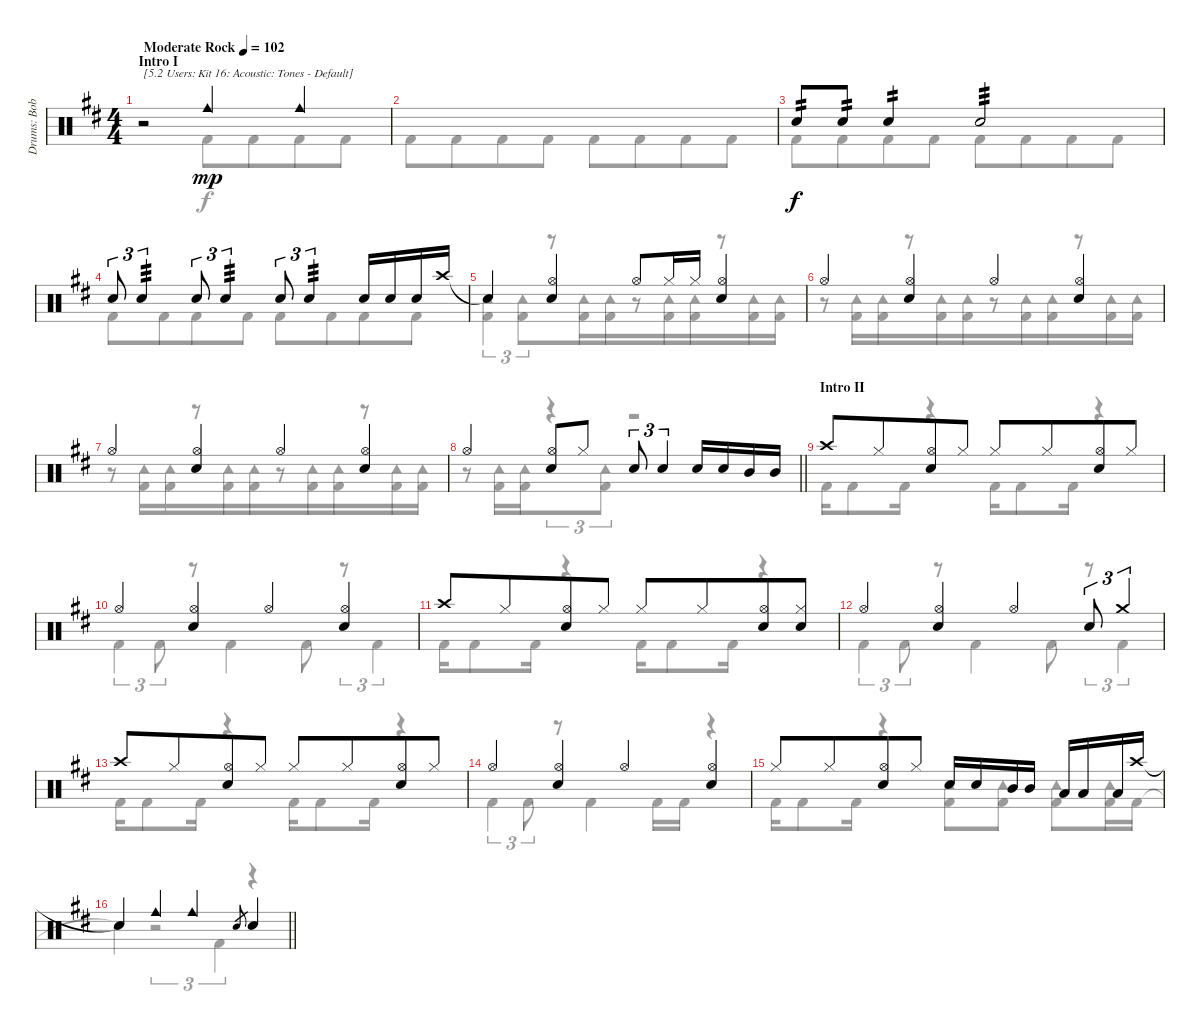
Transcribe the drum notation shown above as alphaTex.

\track ("Drums: Bobby" "Drums: Bob") {instrument percussion}
\staff {score}
\articulation defaults
\voice
\ts (4 4)
\section ("" "Intro I")
\tempo (102 "Moderate Rock")
\clef neutral
\ks d
r.2{txt "[5.2 Users: Kit 16: Acoustic: Tones - Default]" dy mp} "Cowbell medium (hit)".4 "Cowbell medium (hit)".4 |
|
"Snare (hit) 2".8{tp 2 dy f} "Snare (hit) 2".8{tp 2} "Snare (hit) 2".4{tp 2} "Snare (hit) 2".2{tp 3} |
"Snare (hit) 2".8{tu (3 2)} "Snare (hit) 2".4{tu (3 2) tp 3} "Snare (hit) 2".8{tu (3 2)} "Snare (hit) 2".4{tu (3 2) tp 3} "Snare (hit) 2".8{tu (3 2)} "Snare (hit) 2".4{tu (3 2) tp 3} "Snare (hit) 2".16 "Snare (hit) 2".16 "Snare (hit) 2".16 "Crash high (hit)".16 |
"Snare (hit)"{t}.4 ("Hi-Hat (open)" "Snare (hit) 2").4 "Hi-Hat (open)".8 "Hi-Hat (closed)".16 "Hi-Hat (closed)".16 ("Hi-Hat (open)" "Snare (hit) 2").4 |
"Hi-Hat (open)".4 ("Hi-Hat (open)" "Snare (hit) 2").4 "Hi-Hat (open)".4 ("Hi-Hat (open)" "Snare (hit) 2").4 |
"Hi-Hat (open)".4 ("Hi-Hat (open)" "Snare (hit) 2").4 "Hi-Hat (open)".4 ("Hi-Hat (open)" "Snare (hit) 2").4 |
\barLineRight lightlight "Hi-Hat (open)".4
("Hi-Hat (open)" "Snare (hit) 2").8 "Hi-Hat (closed)".8 "Snare (hit) 2".8{tu (3 2)} "Snare (hit) 2".4{tu (3 2)} "Snare (hit) 2".16 "Snare (hit) 2".16 "Mid Tom (hit)".16 "Mid Tom (hit)".16 |
\section ("" "Intro II")
"Crash high (hit)".8 "Hi-Hat (closed)".8{beam merge} ("Hi-Hat (open)" "Snare (hit) 2").8 "Hi-Hat (closed)".8 "Hi-Hat (closed)".8 "Hi-Hat (closed)".8{beam merge} ("Hi-Hat (open)" "Snare (hit) 2").8 "Hi-Hat (closed)".8 |
"Hi-Hat (open)".4 ("Hi-Hat (open)" "Snare (hit) 2").4 "Hi-Hat (open)".4 ("Hi-Hat (open)" "Snare (hit) 2").4 |
"Crash high (hit)".8 "Hi-Hat (closed)".8{beam merge} ("Hi-Hat (open)" "Snare (hit) 2").8 "Hi-Hat (closed)".8 "Hi-Hat (closed)".8 "Hi-Hat (closed)".8{beam merge} ("Hi-Hat (open)" "Snare (hit) 2").8 ("Hi-Hat (closed)" "Snare (hit)").8 |
"Hi-Hat (open)".4 ("Hi-Hat (open)" "Snare (hit) 2").4 "Hi-Hat (open)".4 "Snare (hit) 2".8{tu (3 2)} "Crash medium (hit)".4{tu (3 2)} |
"Crash high (hit)".8 "Hi-Hat (closed)".8{beam merge} ("Hi-Hat (open)" "Snare (hit) 2").8 "Hi-Hat (closed)".8 "Hi-Hat (closed)".8 "Hi-Hat (closed)".8{beam merge} ("Hi-Hat (open)" "Snare (hit) 2").8 "Hi-Hat (closed)".8 |
"Hi-Hat (open)".4 ("Hi-Hat (open)" "Snare (hit) 2").4 "Hi-Hat (open)".4 ("Hi-Hat (open)" "Snare (hit) 2").4 |
"Hi-Hat (closed)".8 "Hi-Hat (closed)".8{beam merge} ("Hi-Hat (open)" "Snare (hit) 2").8 "Hi-Hat (closed)".8 "Snare (hit) 2".16 "Snare (hit) 2".16 "Mid Tom (hit)".16 "Mid Tom (hit)".16 "Low Tom (hit)".16 "Low Tom (hit)".16 "Low Tom (hit)".16 "Crash high (hit)".16 |
\barLineRight lightlight "Snare (hit)"{t}.4 "Cowbell medium (hit)".4 "Cowbell medium (hit)".4 "Electric Snare (hit)".8{gr} "Snare (hit) 2".4
\voice
\clef neutral
\ottava regular
\simile none
\ks d
r.2{dy f} "Kick (hit) 2".8 "Kick (hit) 2".8{beam merge} "Kick (hit) 2".8 "Kick (hit) 2".8 |
"Kick (hit) 2".8 "Kick (hit) 2".8{beam merge} "Kick (hit) 2".8 "Kick (hit) 2".8 "Kick (hit) 2".8 "Kick (hit) 2".8{beam merge} "Kick (hit) 2".8 "Kick (hit) 2".8 |
"Kick (hit) 2".8 "Kick (hit) 2".8{beam merge} "Kick (hit) 2".8 "Kick (hit) 2".8 "Kick (hit) 2".8 "Kick (hit) 2".8{beam merge} "Kick (hit) 2".8 "Kick (hit) 2".8 |
"Kick (hit) 2".8 "Kick (hit) 2".8{beam merge} "Kick (hit) 2".8 "Kick (hit) 2".8 "Kick (hit) 2".8 "Kick (hit) 2".8{beam merge} "Kick (hit) 2".8 "Kick (hit) 2".8 |
("Kick (hit) 2" "Tambourine (hit)").4{tu (3 2)} ("Kick (hit) 2" "Tambourine (hit)").8{tu (3 2) beam merge} r.8 ("Kick (hit) 2" "Tambourine (hit)").16 ("Kick (hit) 2" "Tambourine (hit)").16{beam merge} r.8 ("Kick (hit) 2" "Tambourine (hit)").16 ("Kick (hit) 2" "Tambourine (hit)").16{beam merge} r.8 ("Kick (hit) 2" "Tambourine (hit)").16 ("Kick (hit) 2" "Tambourine (hit)").16 |
r.8 ("Kick (hit) 2" "Tambourine (hit)").16 ("Kick (hit) 2" "Tambourine (hit)").16{beam merge} r.8 ("Kick (hit) 2" "Tambourine (hit)").16 ("Kick (hit) 2" "Tambourine (hit)").16{beam merge} r.8 ("Kick (hit) 2" "Tambourine (hit)").16 ("Kick (hit) 2" "Tambourine (hit)").16{beam merge} r.8 ("Kick (hit) 2" "Tambourine (hit)").16 ("Kick (hit) 2" "Tambourine (hit)").16 |
r.8 ("Kick (hit) 2" "Tambourine (hit)").16 ("Kick (hit) 2" "Tambourine (hit)").16{beam merge} r.8 ("Kick (hit) 2" "Tambourine (hit)").16 ("Kick (hit) 2" "Tambourine (hit)").16{beam merge} r.8 ("Kick (hit) 2" "Tambourine (hit)").16 ("Kick (hit) 2" "Tambourine (hit)").16{beam merge} r.8 ("Kick (hit) 2" "Tambourine (hit)").16 ("Kick (hit) 2" "Tambourine (hit)").16 |
\barLineRight lightlight
r.8 ("Kick (hit) 2" "Tambourine (hit)").16 ("Kick (hit) 2" "Tambourine (hit)").16{beam merge} r.4{tu (3 2)} ("Kick (hit) 2" "Tambourine (hit)").8{tu (3 2)} r.2 |
"Kick (hit) 2".16 "Kick (hit) 2".8 "Kick (hit) 2".16 r.4 "Kick (hit) 2".16 "Kick (hit) 2".8 "Kick (hit) 2".16 r.4 |
"Kick (hit) 2".4{tu (3 2)} "Kick (hit) 2".8{tu (3 2)} r.8 "Kick (hit) 2".4 "Kick (hit) 2".8 r.8{tu (3 2)} "Kick (hit) 2".4{tu (3 2)} |
"Kick (hit) 2".16 "Kick (hit) 2".8 "Kick (hit) 2".16 r.4 "Kick (hit) 2".16 "Kick (hit) 2".8 "Kick (hit) 2".16 r.4 |
"Kick (hit) 2".4{tu (3 2)} "Kick (hit) 2".8{tu (3 2)} r.8 "Kick (hit) 2".4 "Kick (hit) 2".8 r.8{tu (3 2)} "Kick (hit) 2".4{tu (3 2)} |
"Kick (hit) 2".16 "Kick (hit) 2".8 "Kick (hit) 2".16 r.4 "Kick (hit) 2".16 "Kick (hit) 2".8 "Kick (hit) 2".16 r.4 |
"Kick (hit) 2".4{tu (3 2)} "Kick (hit) 2".8{tu (3 2)} r.8 "Kick (hit) 2".4 "Kick (hit) 2".16 "Kick (hit) 2".16 r.4 |
"Kick (hit) 2".16 "Kick (hit) 2".8 "Kick (hit) 2".16 r.4 ("Kick (hit) 2" "Tambourine (hit)").8 ("Kick (hit) 2" "Tambourine (hit)").8 ("Kick (hit) 2" "Tambourine (hit)").8 ("Kick (hit) 2" "Tambourine (hit)").16 "Kick (hit) 2".16 |
\barLineRight lightlight "Snare (hit)"{t}.4
r.2{tu (3 2)} "Kick (hit) 2".4{tu (3 2)} r.4
